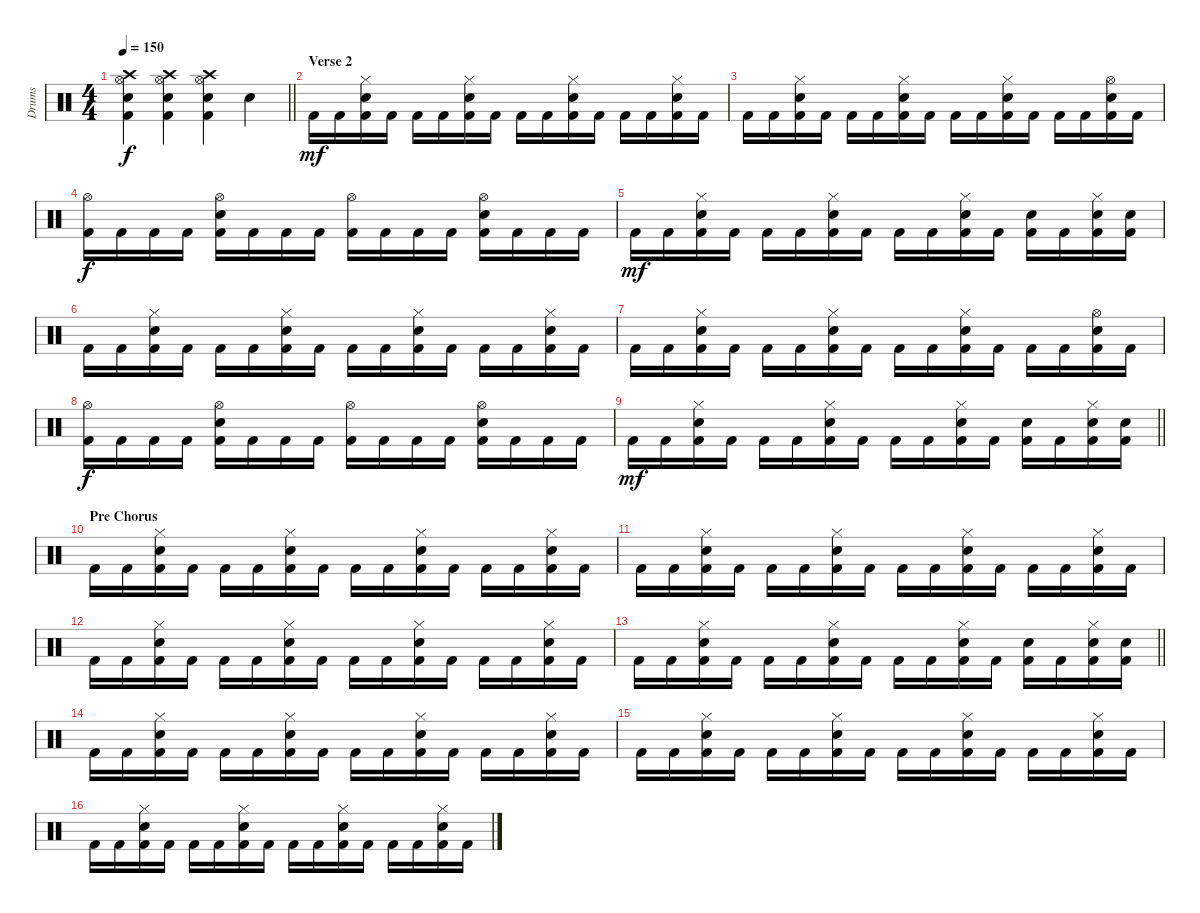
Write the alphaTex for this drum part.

\track ("Drums" "Drums") {instrument percussion}
\staff {score}
\articulation defaults
\ts (4 4)
\tempo 150
\clef neutral
\barLineRight lightlight
\ks c
("Crash high (hit)" "Hi-Hat (open)" "Electric Snare (hit)" "Kick (hit) 2").4{dy f} ("Crash high (hit)" "Hi-Hat (open)" "Electric Snare (hit)" "Kick (hit) 2").4 ("Crash high (hit)" "Hi-Hat (open)" "Electric Snare (hit)" "Kick (hit) 2").4 "Electric Snare (hit)".4 |
\section ("" "Verse 2")
"Kick (hit) 2".16{dy mf} "Kick (hit) 2".16 ("Hi-Hat (closed)" "Electric Snare (hit)" "Kick (hit) 2").16 "Kick (hit) 2".16 "Kick (hit) 2".16 "Kick (hit) 2".16 ("Hi-Hat (closed)" "Electric Snare (hit)" "Kick (hit) 2").16 "Kick (hit) 2".16 "Kick (hit) 2".16 "Kick (hit) 2".16 ("Hi-Hat (closed)" "Electric Snare (hit)" "Kick (hit) 2").16 "Kick (hit) 2".16 "Kick (hit) 2".16 "Kick (hit) 2".16 ("Hi-Hat (closed)" "Electric Snare (hit)" "Kick (hit) 2").16 "Kick (hit) 2".16 |
"Kick (hit) 2".16 "Kick (hit) 2".16 ("Hi-Hat (closed)" "Electric Snare (hit)" "Kick (hit) 2").16 "Kick (hit) 2".16 "Kick (hit) 2".16 "Kick (hit) 2".16 ("Hi-Hat (closed)" "Electric Snare (hit)" "Kick (hit) 2").16 "Kick (hit) 2".16 "Kick (hit) 2".16 "Kick (hit) 2".16 ("Hi-Hat (closed)" "Electric Snare (hit)" "Kick (hit) 2").16 "Kick (hit) 2".16 "Kick (hit) 2".16 "Kick (hit) 2".16 ("Hi-Hat (open)" "Electric Snare (hit)" "Kick (hit) 2").16 "Kick (hit) 2".16 |
("Hi-Hat (open)" "Kick (hit) 2").16{dy f} "Kick (hit) 2".16 "Kick (hit) 2".16 "Kick (hit) 2".16 ("Hi-Hat (open)" "Electric Snare (hit)" "Kick (hit) 2").16 "Kick (hit) 2".16 "Kick (hit) 2".16 "Kick (hit) 2".16 ("Hi-Hat (open)" "Kick (hit) 2").16 "Kick (hit) 2".16 "Kick (hit) 2".16 "Kick (hit) 2".16 ("Hi-Hat (open)" "Electric Snare (hit)" "Kick (hit) 2").16 "Kick (hit) 2".16 "Kick (hit) 2".16 "Kick (hit) 2".16 |
"Kick (hit) 2".16{dy mf} "Kick (hit) 2".16 ("Hi-Hat (closed)" "Electric Snare (hit)" "Kick (hit) 2").16 "Kick (hit) 2".16 "Kick (hit) 2".16 "Kick (hit) 2".16 ("Hi-Hat (closed)" "Electric Snare (hit)" "Kick (hit) 2").16 "Kick (hit) 2".16 "Kick (hit) 2".16 "Kick (hit) 2".16 ("Hi-Hat (closed)" "Electric Snare (hit)" "Kick (hit) 2").16 "Kick (hit) 2".16 ("Electric Snare (hit)" "Kick (hit) 2").16 "Kick (hit) 2".16 ("Hi-Hat (closed)" "Electric Snare (hit)" "Kick (hit) 2").16 ("Electric Snare (hit)" "Kick (hit) 2").16 |
"Kick (hit) 2".16 "Kick (hit) 2".16 ("Hi-Hat (closed)" "Electric Snare (hit)" "Kick (hit) 2").16 "Kick (hit) 2".16 "Kick (hit) 2".16 "Kick (hit) 2".16 ("Hi-Hat (closed)" "Electric Snare (hit)" "Kick (hit) 2").16 "Kick (hit) 2".16 "Kick (hit) 2".16 "Kick (hit) 2".16 ("Hi-Hat (closed)" "Electric Snare (hit)" "Kick (hit) 2").16 "Kick (hit) 2".16 "Kick (hit) 2".16 "Kick (hit) 2".16 ("Hi-Hat (closed)" "Electric Snare (hit)" "Kick (hit) 2").16 "Kick (hit) 2".16 |
"Kick (hit) 2".16 "Kick (hit) 2".16 ("Hi-Hat (closed)" "Electric Snare (hit)" "Kick (hit) 2").16 "Kick (hit) 2".16 "Kick (hit) 2".16 "Kick (hit) 2".16 ("Hi-Hat (closed)" "Electric Snare (hit)" "Kick (hit) 2").16 "Kick (hit) 2".16 "Kick (hit) 2".16 "Kick (hit) 2".16 ("Hi-Hat (closed)" "Electric Snare (hit)" "Kick (hit) 2").16 "Kick (hit) 2".16 "Kick (hit) 2".16 "Kick (hit) 2".16 ("Hi-Hat (open)" "Electric Snare (hit)" "Kick (hit) 2").16 "Kick (hit) 2".16 |
("Hi-Hat (open)" "Kick (hit) 2").16{dy f} "Kick (hit) 2".16 "Kick (hit) 2".16 "Kick (hit) 2".16 ("Hi-Hat (open)" "Electric Snare (hit)" "Kick (hit) 2").16 "Kick (hit) 2".16 "Kick (hit) 2".16 "Kick (hit) 2".16 ("Hi-Hat (open)" "Kick (hit) 2").16 "Kick (hit) 2".16 "Kick (hit) 2".16 "Kick (hit) 2".16 ("Hi-Hat (open)" "Electric Snare (hit)" "Kick (hit) 2").16 "Kick (hit) 2".16 "Kick (hit) 2".16 "Kick (hit) 2".16 |
\barLineRight lightlight "Kick (hit) 2".16{dy mf} "Kick (hit) 2".16
("Hi-Hat (closed)" "Electric Snare (hit)" "Kick (hit) 2").16 "Kick (hit) 2".16 "Kick (hit) 2".16 "Kick (hit) 2".16 ("Hi-Hat (closed)" "Electric Snare (hit)" "Kick (hit) 2").16 "Kick (hit) 2".16 "Kick (hit) 2".16 "Kick (hit) 2".16 ("Hi-Hat (closed)" "Electric Snare (hit)" "Kick (hit) 2").16 "Kick (hit) 2".16 ("Electric Snare (hit)" "Kick (hit) 2").16 "Kick (hit) 2".16 ("Hi-Hat (closed)" "Electric Snare (hit)" "Kick (hit) 2").16 ("Electric Snare (hit)" "Kick (hit) 2").16 |
\section ("" "Pre Chorus")
"Kick (hit) 2".16 "Kick (hit) 2".16 ("Hi-Hat (closed)" "Electric Snare (hit)" "Kick (hit) 2").16 "Kick (hit) 2".16 "Kick (hit) 2".16 "Kick (hit) 2".16 ("Hi-Hat (closed)" "Electric Snare (hit)" "Kick (hit) 2").16 "Kick (hit) 2".16 "Kick (hit) 2".16 "Kick (hit) 2".16 ("Hi-Hat (closed)" "Electric Snare (hit)" "Kick (hit) 2").16 "Kick (hit) 2".16 "Kick (hit) 2".16 "Kick (hit) 2".16 ("Hi-Hat (closed)" "Electric Snare (hit)" "Kick (hit) 2").16 "Kick (hit) 2".16 |
"Kick (hit) 2".16 "Kick (hit) 2".16 ("Hi-Hat (closed)" "Electric Snare (hit)" "Kick (hit) 2").16 "Kick (hit) 2".16 "Kick (hit) 2".16 "Kick (hit) 2".16 ("Hi-Hat (closed)" "Electric Snare (hit)" "Kick (hit) 2").16 "Kick (hit) 2".16 "Kick (hit) 2".16 "Kick (hit) 2".16 ("Hi-Hat (closed)" "Electric Snare (hit)" "Kick (hit) 2").16 "Kick (hit) 2".16 "Kick (hit) 2".16 "Kick (hit) 2".16 ("Hi-Hat (closed)" "Electric Snare (hit)" "Kick (hit) 2").16 "Kick (hit) 2".16 |
"Kick (hit) 2".16 "Kick (hit) 2".16 ("Hi-Hat (closed)" "Electric Snare (hit)" "Kick (hit) 2").16 "Kick (hit) 2".16 "Kick (hit) 2".16 "Kick (hit) 2".16 ("Hi-Hat (closed)" "Electric Snare (hit)" "Kick (hit) 2").16 "Kick (hit) 2".16 "Kick (hit) 2".16 "Kick (hit) 2".16 ("Hi-Hat (closed)" "Electric Snare (hit)" "Kick (hit) 2").16 "Kick (hit) 2".16 "Kick (hit) 2".16 "Kick (hit) 2".16 ("Hi-Hat (closed)" "Electric Snare (hit)" "Kick (hit) 2").16 "Kick (hit) 2".16 |
\barLineRight lightlight "Kick (hit) 2".16 "Kick (hit) 2".16
("Hi-Hat (closed)" "Electric Snare (hit)" "Kick (hit) 2").16 "Kick (hit) 2".16 "Kick (hit) 2".16 "Kick (hit) 2".16 ("Hi-Hat (closed)" "Electric Snare (hit)" "Kick (hit) 2").16 "Kick (hit) 2".16 "Kick (hit) 2".16 "Kick (hit) 2".16 ("Hi-Hat (closed)" "Electric Snare (hit)" "Kick (hit) 2").16 "Kick (hit) 2".16 ("Electric Snare (hit)" "Kick (hit) 2").16 "Kick (hit) 2".16 ("Hi-Hat (closed)" "Electric Snare (hit)" "Kick (hit) 2").16 ("Electric Snare (hit)" "Kick (hit) 2").16 |
"Kick (hit) 2".16 "Kick (hit) 2".16 ("Hi-Hat (closed)" "Electric Snare (hit)" "Kick (hit) 2").16 "Kick (hit) 2".16 "Kick (hit) 2".16 "Kick (hit) 2".16 ("Hi-Hat (closed)" "Electric Snare (hit)" "Kick (hit) 2").16 "Kick (hit) 2".16 "Kick (hit) 2".16 "Kick (hit) 2".16 ("Hi-Hat (closed)" "Electric Snare (hit)" "Kick (hit) 2").16 "Kick (hit) 2".16 "Kick (hit) 2".16 "Kick (hit) 2".16 ("Hi-Hat (closed)" "Electric Snare (hit)" "Kick (hit) 2").16 "Kick (hit) 2".16 |
"Kick (hit) 2".16 "Kick (hit) 2".16 ("Hi-Hat (closed)" "Electric Snare (hit)" "Kick (hit) 2").16 "Kick (hit) 2".16 "Kick (hit) 2".16 "Kick (hit) 2".16 ("Hi-Hat (closed)" "Electric Snare (hit)" "Kick (hit) 2").16 "Kick (hit) 2".16 "Kick (hit) 2".16 "Kick (hit) 2".16 ("Hi-Hat (closed)" "Electric Snare (hit)" "Kick (hit) 2").16 "Kick (hit) 2".16 "Kick (hit) 2".16 "Kick (hit) 2".16 ("Hi-Hat (closed)" "Electric Snare (hit)" "Kick (hit) 2").16 "Kick (hit) 2".16 |
"Kick (hit) 2".16 "Kick (hit) 2".16 ("Hi-Hat (closed)" "Electric Snare (hit)" "Kick (hit) 2").16 "Kick (hit) 2".16 "Kick (hit) 2".16 "Kick (hit) 2".16 ("Hi-Hat (closed)" "Electric Snare (hit)" "Kick (hit) 2").16 "Kick (hit) 2".16 "Kick (hit) 2".16 "Kick (hit) 2".16 ("Hi-Hat (closed)" "Electric Snare (hit)" "Kick (hit) 2").16 "Kick (hit) 2".16 "Kick (hit) 2".16 "Kick (hit) 2".16 ("Hi-Hat (closed)" "Electric Snare (hit)" "Kick (hit) 2").16 "Kick (hit) 2".16
